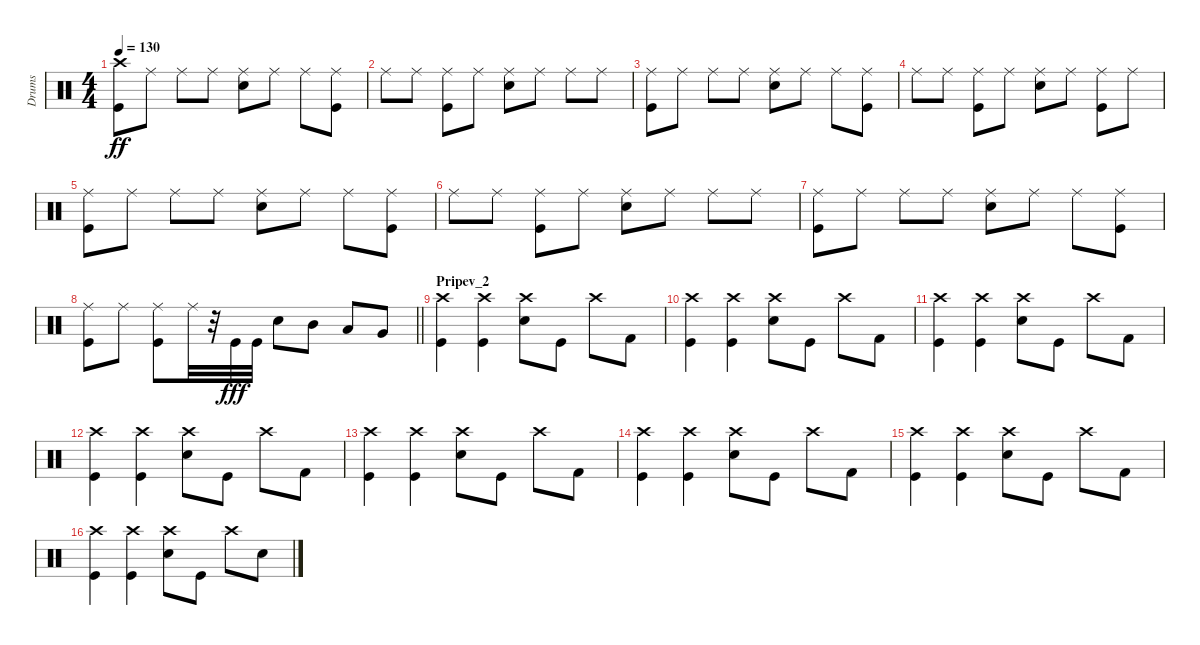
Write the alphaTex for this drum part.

\track ("Drums" "Drums") {instrument percussion}
\staff {score}
\articulation defaults
\ts (4 4)
\tempo 130
\clef neutral
\ks c
("Crash high (hit)" "Kick (hit)").8{dy ff} "Ride (middle)".8 "Ride (middle)".8 "Ride (middle)".8 ("Ride (middle)" "Snare (hit) 2").8 "Ride (middle)".8 "Ride (middle)".8 ("Ride (middle)" "Kick (hit)").8 |
"Ride (middle)".8 "Ride (middle)".8 ("Ride (middle)" "Kick (hit)").8 "Ride (middle)".8 ("Ride (middle)" "Snare (hit) 2").8 "Ride (middle)".8 "Ride (middle)".8 "Ride (middle)".8 |
("Ride (middle)" "Kick (hit)").8 "Ride (middle)".8 "Ride (middle)".8 "Ride (middle)".8 ("Ride (middle)" "Snare (hit) 2").8 "Ride (middle)".8 "Ride (middle)".8 ("Ride (middle)" "Kick (hit)").8 |
"Ride (middle)".8 "Ride (middle)".8 ("Ride (middle)" "Kick (hit)").8 "Ride (middle)".8 ("Ride (middle)" "Snare (hit) 2").8 "Ride (middle)".8 ("Ride (middle)" "Kick (hit)").8 "Ride (middle)".8 |
("Ride (middle)" "Kick (hit)").8 "Ride (middle)".8 "Ride (middle)".8 "Ride (middle)".8 ("Ride (middle)" "Snare (hit) 2").8 "Ride (middle)".8 "Ride (middle)".8 ("Ride (middle)" "Kick (hit)").8 |
"Ride (middle)".8 "Ride (middle)".8 ("Ride (middle)" "Kick (hit)").8 "Ride (middle)".8 ("Ride (middle)" "Snare (hit) 2").8 "Ride (middle)".8 "Ride (middle)".8 "Ride (middle)".8 |
("Ride (middle)" "Kick (hit)").8 "Ride (middle)".8 "Ride (middle)".8 "Ride (middle)".8 ("Ride (middle)" "Snare (hit) 2").8 "Ride (middle)".8 "Ride (middle)".8 ("Ride (middle)" "Kick (hit)").8 |
\barLineRight lightlight
("Ride (middle)" "Kick (hit)").8 "Ride (middle)".8 ("Ride (middle)" "Kick (hit)").8 "Ride (middle)".32 r.32 "Kick (hit)".32{dy fff} "Kick (hit)".32 "Snare (hit) 2".8 "Mid Tom (hit)".8 "Low Tom (hit)".8 "Very Low Tom (hit)".8 |
\section ("" "Pripev_2")
("Crash high (hit)" "Kick (hit)").4 ("Crash high (hit)" "Kick (hit)").4 ("Crash high (hit)" "Snare (hit) 2").8 "Kick (hit)".8 "Crash high (hit)".8 "Kick (hit) 2".8 |
("Crash high (hit)" "Kick (hit)").4 ("Crash high (hit)" "Kick (hit)").4 ("Crash high (hit)" "Snare (hit) 2").8 "Kick (hit)".8 "Crash high (hit)".8 "Kick (hit) 2".8 |
("Crash high (hit)" "Kick (hit)").4 ("Crash high (hit)" "Kick (hit)").4 ("Crash high (hit)" "Snare (hit) 2").8 "Kick (hit)".8 "Crash high (hit)".8 "Kick (hit) 2".8 |
("Crash high (hit)" "Kick (hit)").4 ("Crash high (hit)" "Kick (hit)").4 ("Crash high (hit)" "Snare (hit) 2").8 "Kick (hit)".8 "Crash high (hit)".8 "Kick (hit) 2".8 |
("Crash high (hit)" "Kick (hit)").4 ("Crash high (hit)" "Kick (hit)").4 ("Crash high (hit)" "Snare (hit) 2").8 "Kick (hit)".8 "Crash high (hit)".8 "Kick (hit) 2".8 |
("Crash high (hit)" "Kick (hit)").4 ("Crash high (hit)" "Kick (hit)").4 ("Crash high (hit)" "Snare (hit) 2").8 "Kick (hit)".8 "Crash high (hit)".8 "Kick (hit) 2".8 |
("Crash high (hit)" "Kick (hit)").4 ("Crash high (hit)" "Kick (hit)").4 ("Crash high (hit)" "Snare (hit) 2").8 "Kick (hit)".8 "Crash high (hit)".8 "Kick (hit) 2".8 |
("Crash high (hit)" "Kick (hit)").4 ("Crash high (hit)" "Kick (hit)").4 ("Crash high (hit)" "Snare (hit) 2").8 "Kick (hit)".8 "Crash high (hit)".8 "Snare (hit) 2".8
